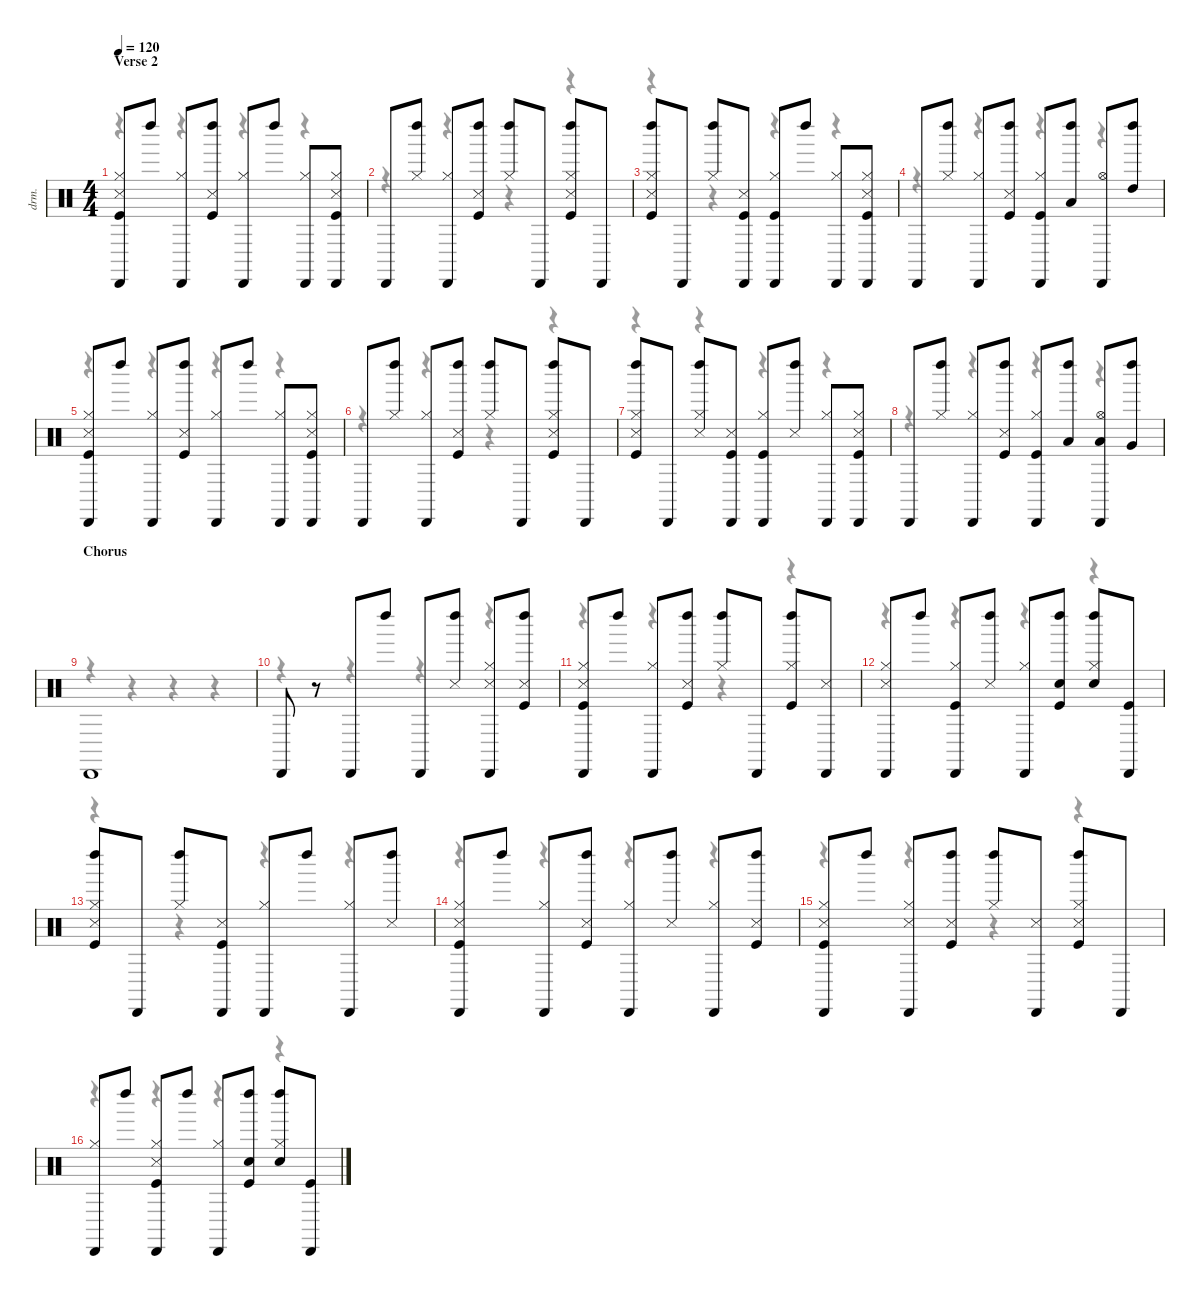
\defaultSystemsLayout 4
\hideDynamics
\bracketExtendMode nobrackets
\track ("Drums" "drm.") {instrument percussion}
\staff {score}
\articulation defaults
\voice
\ts (4 4)
\section ("" "Verse 2")
\tempo 120
\clef neutral
\ks c
("Hi-Hat (closed)" "Snare (side stick) 3" "Kick (hit)" "Cabasa (hit)").8{dy ff} "Left Maraca (hit)".8{dy f} ("Hi-Hat (closed)" "Cabasa (hit)").8{dy ff} ("Kick (hit)" "Left Maraca (hit)" "Snare (side stick) 3").8{dy f} ("Hi-Hat (closed)" "Cabasa (hit)").8{dy ff} "Left Maraca (hit)".8{dy f} ("Hi-Hat (closed)" "Cabasa (hit)").8{dy ff} ("Hi-Hat (closed)" "Cabasa (hit)" "Snare (side stick) 3" "Kick (hit)").8 |
"Cabasa (hit)".8 ("Left Maraca (hit)" "Hi-Hat (closed)").8 ("Hi-Hat (closed)" "Cabasa (hit)").8 ("Left Maraca (hit)" "Snare (side stick) 3" "Kick (hit)").8 ("Hi-Hat (closed)" "Left Maraca (hit)").8 "Cabasa (hit)".8{dy f} ("Hi-Hat (closed)" "Left Maraca (hit)" "Kick (hit)" "Snare (side stick) 3").8{dy ff} "Cabasa (hit)".8 |
("Hi-Hat (closed)" "Left Maraca (hit)" "Kick (hit)" "Snare (side stick) 3").8 "Cabasa (hit)".8{dy f} ("Left Maraca (hit)" "Hi-Hat (closed)").8 ("Cabasa (hit)" "Snare (side stick) 3" "Kick (hit)").8 ("Cabasa (hit)" "Kick (hit)" "Hi-Hat (closed)").8 "Left Maraca (hit)".8 ("Hi-Hat (closed)" "Cabasa (hit)").8{dy ff} ("Kick (hit)" "Hi-Hat (closed)" "Cabasa (hit)" "Snare (side stick) 3").8 |
"Cabasa (hit)".8 ("Left Maraca (hit)" "Hi-Hat (closed)").8 ("Cabasa (hit)" "Hi-Hat (closed)").8 ("Snare (side stick) 3" "Kick (hit)" "Left Maraca (hit)").8 ("Cabasa (hit)" "Kick (hit)" "Hi-Hat (closed)").8 ("Low Tom (hit)" "Left Maraca (hit)").8 ("Cabasa (hit)" "Hi-Hat (open)").8 ("High Tom (hit)" "Left Maraca (hit)").8 |
("Hi-Hat (closed)" "Snare (side stick) 3" "Kick (hit)" "Cabasa (hit)").8 "Left Maraca (hit)".8{dy f} ("Hi-Hat (closed)" "Cabasa (hit)").8{dy ff} ("Kick (hit)" "Left Maraca (hit)" "Snare (side stick) 3").8{dy f} ("Hi-Hat (closed)" "Cabasa (hit)").8{dy ff} "Left Maraca (hit)".8{dy f} ("Hi-Hat (closed)" "Cabasa (hit)").8{dy ff} ("Hi-Hat (closed)" "Cabasa (hit)" "Snare (side stick) 3" "Kick (hit)").8 |
"Cabasa (hit)".8 ("Left Maraca (hit)" "Hi-Hat (closed)").8 ("Hi-Hat (closed)" "Cabasa (hit)").8 ("Left Maraca (hit)" "Snare (side stick) 3" "Kick (hit)").8 ("Hi-Hat (closed)" "Left Maraca (hit)").8 "Cabasa (hit)".8{dy f} ("Hi-Hat (closed)" "Left Maraca (hit)" "Kick (hit)" "Snare (side stick) 3").8{dy ff} "Cabasa (hit)".8 |
("Hi-Hat (closed)" "Left Maraca (hit)" "Kick (hit)" "Snare (side stick) 3").8 "Cabasa (hit)".8{dy f} ("Left Maraca (hit)" "Hi-Hat (closed)" "Snare (side stick) 3").8 ("Cabasa (hit)" "Snare (side stick) 3" "Kick (hit)").8 ("Cabasa (hit)" "Kick (hit)" "Hi-Hat (closed)").8 ("Left Maraca (hit)" "Snare (side stick) 3").8 ("Hi-Hat (closed)" "Cabasa (hit)").8{dy ff} ("Kick (hit)" "Hi-Hat (closed)" "Cabasa (hit)" "Snare (side stick) 3").8 |
"Cabasa (hit)".8 ("Left Maraca (hit)" "Hi-Hat (closed)").8 ("Cabasa (hit)" "Hi-Hat (closed)").8 ("Snare (side stick) 3" "Kick (hit)" "Left Maraca (hit)").8 ("Cabasa (hit)" "Kick (hit)" "Hi-Hat (closed)").8 ("Low Tom (hit)" "Left Maraca (hit)").8 ("Cabasa (hit)" "Hi-Hat (open)" "Low Tom (hit)").8 ("Very Low Tom (hit)" "Left Maraca (hit)").8{dy f} |
\section ("" "Chorus")
"Cabasa (hit)".1 |
"Cabasa (hit)".8 r.8 "Cabasa (hit)".8 "Left Maraca (hit)".8 "Cabasa (hit)".8{dy ff} ("Left Maraca (hit)" "Snare (side stick) 3").8{dy f} ("Hi-Hat (closed)" "Cabasa (hit)" "Snare (side stick) 3").8{dy ff} ("Left Maraca (hit)" "Kick (hit)" "Snare (side stick) 3").8 |
("Hi-Hat (closed)" "Cabasa (hit)" "Snare (side stick) 3" "Kick (hit)").8 "Left Maraca (hit)".8{dy f} ("Hi-Hat (closed)" "Cabasa (hit)").8{dy ff} ("Left Maraca (hit)" "Snare (side stick) 3" "Kick (hit)").8 ("Hi-Hat (closed)" "Left Maraca (hit)").8 "Cabasa (hit)".8{dy f} ("Hi-Hat (closed)" "Left Maraca (hit)" "Kick (hit)").8{dy ff} ("Cabasa (hit)" "Snare (side stick) 3").8 |
("Snare (side stick) 3" "Hi-Hat (closed)" "Cabasa (hit)").8 "Left Maraca (hit)".8 ("Kick (hit)" "Cabasa (hit)" "Hi-Hat (closed)").8 ("Left Maraca (hit)" "Snare (side stick) 3").8 ("Hi-Hat (closed)" "Cabasa (hit)").8{dy fff} ("Snare (hit) 2" "Left Maraca (hit)" "Kick (hit)").8{dy mf} ("Snare (hit) 2" "Hi-Hat (closed)" "Left Maraca (hit)").8 ("Cabasa (hit)" "Kick (hit)").8{dy ff} |
("Hi-Hat (closed)" "Left Maraca (hit)" "Kick (hit)" "Snare (side stick) 3").8 "Cabasa (hit)".8{dy f} ("Left Maraca (hit)" "Hi-Hat (closed)").8 ("Cabasa (hit)" "Snare (side stick) 3" "Kick (hit)").8 ("Cabasa (hit)" "Hi-Hat (closed)").8 "Left Maraca (hit)".8 ("Hi-Hat (closed)" "Cabasa (hit)").8{dy ff} ("Left Maraca (hit)" "Snare (side stick) 3").8 |
("Hi-Hat (closed)" "Snare (side stick) 3" "Kick (hit)" "Cabasa (hit)").8 "Left Maraca (hit)".8{dy f} ("Hi-Hat (closed)" "Cabasa (hit)").8{dy ff} ("Kick (hit)" "Left Maraca (hit)" "Snare (side stick) 3").8{dy f} ("Hi-Hat (closed)" "Cabasa (hit)").8{dy ff} ("Left Maraca (hit)" "Snare (side stick) 3").8{dy f} ("Hi-Hat (closed)" "Cabasa (hit)").8{dy ff} ("Left Maraca (hit)" "Kick (hit)" "Snare (side stick) 3").8 |
("Hi-Hat (closed)" "Cabasa (hit)" "Snare (side stick) 3" "Kick (hit)").8 "Left Maraca (hit)".8{dy f} ("Hi-Hat (closed)" "Cabasa (hit)" "Snare (side stick) 3").8{dy ff} ("Left Maraca (hit)" "Snare (side stick) 3" "Kick (hit)").8 ("Hi-Hat (closed)" "Left Maraca (hit)").8 ("Cabasa (hit)" "Snare (side stick) 3").8{dy f} ("Hi-Hat (closed)" "Left Maraca (hit)" "Kick (hit)" "Snare (side stick) 3").8{dy ff} "Cabasa (hit)".8 |
("Hi-Hat (closed)" "Cabasa (hit)").8 "Left Maraca (hit)".8 ("Kick (hit)" "Cabasa (hit)" "Hi-Hat (closed)" "Snare (side stick) 3").8 "Left Maraca (hit)".8 ("Hi-Hat (closed)" "Cabasa (hit)").8{dy fff} ("Snare (hit) 2" "Left Maraca (hit)" "Kick (hit)").8{dy mf} ("Snare (hit) 2" "Hi-Hat (closed)" "Left Maraca (hit)").8 ("Cabasa (hit)" "Kick (hit)").8{dy ff}
\voice
\clef neutral
\ottava regular
\simile none
\ks c
r.4{dy mf} r.4 r.4 r.4 |
r.4 r.4 r.4 r.4 |
r.4 r.4 r.4 r.4 |
r.4 r.4 r.4 r.4 |
r.4 r.4 r.4 r.4 |
r.4 r.4 r.4 r.4 |
r.4 r.4 r.4 r.4 |
r.4 r.4 r.4 r.4 |
r.4 r.4 r.4 r.4 |
r.4 r.4 r.4 r.4 |
r.4 r.4 r.4 r.4 |
r.4 r.4 r.4 r.4 |
r.4 r.4 r.4 r.4 |
r.4 r.4 r.4 r.4 |
r.4 r.4 r.4 r.4 |
r.4 r.4 r.4 r.4
